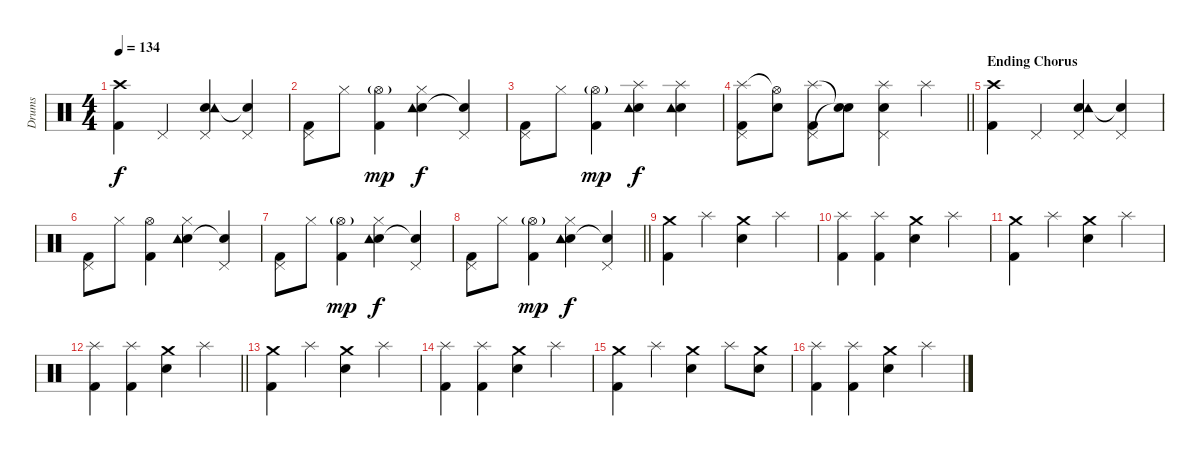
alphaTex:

\track ("Drums" "Drums") {instrument percussion}
\staff {score}
\articulation defaults
\ts (4 4)
\tempo 134
\clef neutral
\ks c
("Crash high (hit)" "Kick (hit) 2").4{dy f} "Pedal Hi-Hat (hit)".4 ("Pedal Hi-Hat (hit)" "Electric Snare (hit)" "Tambourine (hit)").4 ("Pedal Hi-Hat (hit)" "Snare (hit)"{t}).4 |
("Pedal Hi-Hat (hit)" "Kick (hit) 2").8 "Hi-Hat (closed)".8 ("Hi-Hat (open)"{g} "Kick (hit) 2").4{dy mp} ("Hi-Hat (closed)" "Electric Snare (hit)" "Tambourine (hit)").4{dy f} ("Pedal Hi-Hat (hit)" "Snare (hit)"{t}).4 |
("Pedal Hi-Hat (hit)" "Kick (hit) 2").8 "Hi-Hat (closed)".8 ("Hi-Hat (open)"{g} "Kick (hit) 2").4{dy mp} ("Splash (hit)" "Electric Snare (hit)" "Tambourine (hit)").4{dy f} ("Splash (hit)" "Electric Snare (hit)" "Tambourine (hit)").4 |
\barLineRight lightlight
("Splash (hit)" "Pedal Hi-Hat (hit)" "Kick (hit) 2").8 ("Hi-Hat (open)"{t} "Electric Snare (hit)").8 ("Splash (hit)" "Pedal Hi-Hat (hit)" "Kick (hit) 2").8 ("Snare (hit)"{t} "Snare (hit)"{t}).8 ("Splash (hit)" "Pedal Hi-Hat (hit)" "Electric Snare (hit)").4 "Splash (hit)".4 |
\section ("" "Ending Chorus")
("Crash high (hit)" "Kick (hit) 2").4 "Pedal Hi-Hat (hit)".4 ("Pedal Hi-Hat (hit)" "Electric Snare (hit)" "Tambourine (hit)").4 ("Pedal Hi-Hat (hit)" "Snare (hit)"{t}).4 |
("Pedal Hi-Hat (hit)" "Kick (hit) 2").8 "Hi-Hat (closed)".8 ("Hi-Hat (open)" "Kick (hit) 2").4 ("Hi-Hat (closed)" "Electric Snare (hit)" "Tambourine (hit)").4 ("Pedal Hi-Hat (hit)" "Snare (hit)"{t}).4 |
("Pedal Hi-Hat (hit)" "Kick (hit) 2").8 "Hi-Hat (closed)".8 ("Hi-Hat (open)"{g} "Kick (hit) 2").4{dy mp} ("Hi-Hat (closed)" "Electric Snare (hit)" "Tambourine (hit)").4{dy f} ("Pedal Hi-Hat (hit)" "Snare (hit)"{t}).4 |
\barLineRight lightlight
("Pedal Hi-Hat (hit)" "Kick (hit) 2").8 "Hi-Hat (closed)".8 ("Hi-Hat (open)"{g} "Kick (hit) 2").4{dy mp} ("Hi-Hat (closed)" "Electric Snare (hit)" "Tambourine (hit)").4{dy f} ("Pedal Hi-Hat (hit)" "Snare (hit)"{t}).4 |
("Crash medium (hit)" "Kick (hit) 2").4 "Splash (hit)".4 ("Crash medium (hit)" "Electric Snare (hit)").4 "Splash (hit)".4 |
("Splash (hit)" "Kick (hit) 2").4 ("Splash (hit)" "Kick (hit) 2").4 ("Crash medium (hit)" "Electric Snare (hit)").4 "Splash (hit)".4 |
("Crash medium (hit)" "Kick (hit) 2").4 "Splash (hit)".4 ("Crash medium (hit)" "Electric Snare (hit)").4 "Splash (hit)".4 |
\barLineRight lightlight
("Splash (hit)" "Kick (hit) 2").4 ("Splash (hit)" "Kick (hit) 2").4 ("Crash medium (hit)" "Electric Snare (hit)").4 "Splash (hit)".4 |
("Crash medium (hit)" "Kick (hit) 2").4 "Splash (hit)".4 ("Crash medium (hit)" "Electric Snare (hit)").4 "Splash (hit)".4 |
("Splash (hit)" "Kick (hit) 2").4 ("Splash (hit)" "Kick (hit) 2").4 ("Crash medium (hit)" "Electric Snare (hit)").4 "Splash (hit)".4 |
("Crash medium (hit)" "Kick (hit) 2").4 "Splash (hit)".4 ("Crash medium (hit)" "Electric Snare (hit)").4 "Splash (hit)".8 ("Crash medium (hit)" "Electric Snare (hit)").8 |
("Splash (hit)" "Kick (hit) 2").4 ("Splash (hit)" "Kick (hit) 2").4 ("Crash medium (hit)" "Electric Snare (hit)").4 "Splash (hit)".4
